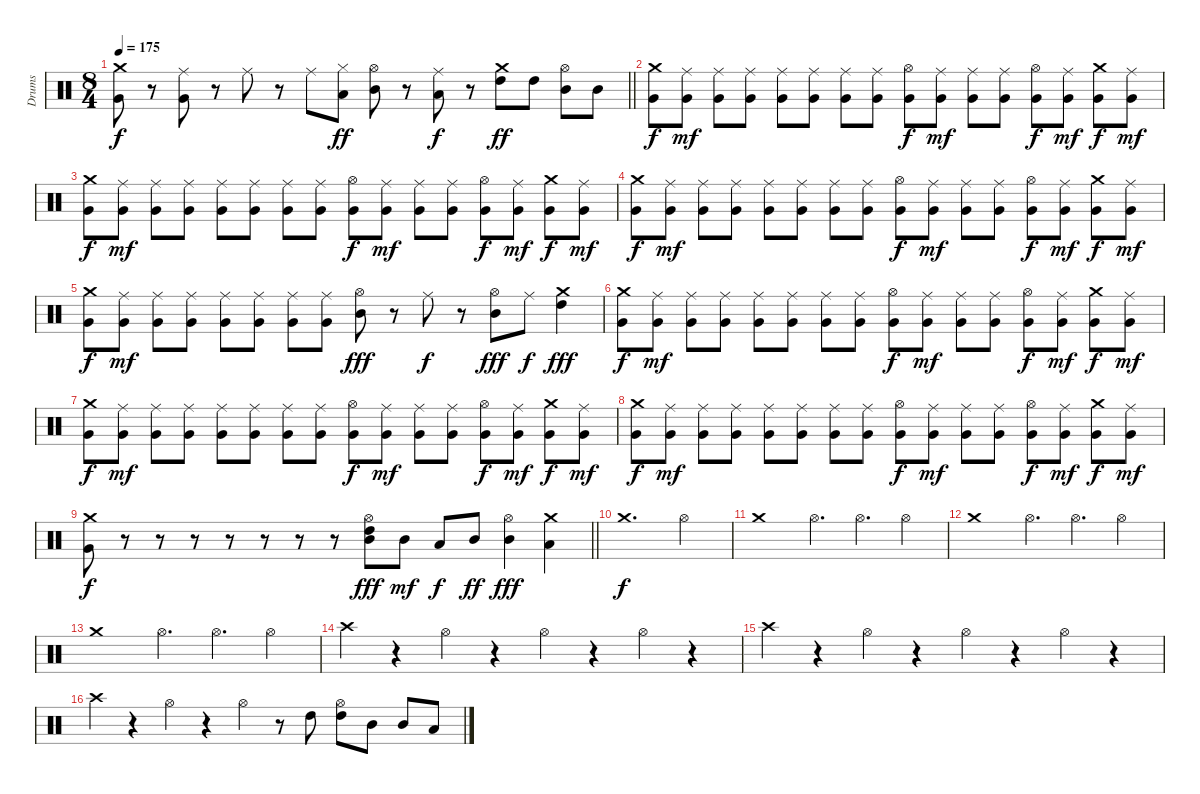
\track ("Drums" "Drums") {instrument percussion}
\staff {score}
\articulation defaults
\ts (8 4)
\tempo 175
\clef neutral
\barLineRight lightlight
\ks c
("Crash medium (hit)" "Very Low Tom (hit)").8{dy f} r.8 ("Ride (middle)" "Very Low Tom (hit)").8 r.8 "Ride (middle)".8 r.8 "Ride (middle)".8 ("Hi-Hat (closed)" "Low Tom (hit)").8{dy ff} ("Hi-Hat (open)" "Mid Tom (hit)").8 r.8 ("Ride (middle)" "Low Tom (hit)").8{dy f} r.8 ("Crash medium (hit)" "High Tom (hit)").8{dy ff} "High Tom (hit)".8 ("Hi-Hat (open)" "Mid Tom (hit)").8 "Mid Tom (hit)".8 |
\section ("" "")
("Crash medium (hit)" "Very Low Tom (hit)").8{dy f} ("Ride (middle)" "Very Low Tom (hit)").8{dy mf} ("Ride (middle)" "Very Low Tom (hit)").8 ("Ride (middle)" "Very Low Tom (hit)").8 ("Ride (middle)" "Very Low Tom (hit)").8 ("Ride (middle)" "Very Low Tom (hit)").8 ("Ride (middle)" "Very Low Tom (hit)").8 ("Ride (middle)" "Very Low Tom (hit)").8 ("Hi-Hat (open)" "Very Low Tom (hit)").8{dy f} ("Ride (middle)" "Very Low Tom (hit)").8{dy mf} ("Ride (middle)" "Very Low Tom (hit)").8 ("Ride (middle)" "Very Low Tom (hit)").8 ("Hi-Hat (open)" "Very Low Tom (hit)").8{dy f} ("Ride (middle)" "Very Low Tom (hit)").8{dy mf} ("Crash medium (hit)" "Very Low Tom (hit)").8{dy f} ("Ride (middle)" "Very Low Tom (hit)").8{dy mf} |
("Crash medium (hit)" "Very Low Tom (hit)").8{dy f} ("Ride (middle)" "Very Low Tom (hit)").8{dy mf} ("Ride (middle)" "Very Low Tom (hit)").8 ("Ride (middle)" "Very Low Tom (hit)").8 ("Ride (middle)" "Very Low Tom (hit)").8 ("Ride (middle)" "Very Low Tom (hit)").8 ("Ride (middle)" "Very Low Tom (hit)").8 ("Ride (middle)" "Very Low Tom (hit)").8 ("Hi-Hat (open)" "Very Low Tom (hit)").8{dy f} ("Ride (middle)" "Very Low Tom (hit)").8{dy mf} ("Ride (middle)" "Very Low Tom (hit)").8 ("Ride (middle)" "Very Low Tom (hit)").8 ("Hi-Hat (open)" "Very Low Tom (hit)").8{dy f} ("Ride (middle)" "Very Low Tom (hit)").8{dy mf} ("Crash medium (hit)" "Very Low Tom (hit)").8{dy f} ("Ride (middle)" "Very Low Tom (hit)").8{dy mf} |
("Crash medium (hit)" "Very Low Tom (hit)").8{dy f} ("Ride (middle)" "Very Low Tom (hit)").8{dy mf} ("Ride (middle)" "Very Low Tom (hit)").8 ("Ride (middle)" "Very Low Tom (hit)").8 ("Ride (middle)" "Very Low Tom (hit)").8 ("Ride (middle)" "Very Low Tom (hit)").8 ("Ride (middle)" "Very Low Tom (hit)").8 ("Ride (middle)" "Very Low Tom (hit)").8 ("Hi-Hat (open)" "Very Low Tom (hit)").8{dy f} ("Ride (middle)" "Very Low Tom (hit)").8{dy mf} ("Ride (middle)" "Very Low Tom (hit)").8 ("Ride (middle)" "Very Low Tom (hit)").8 ("Hi-Hat (open)" "Very Low Tom (hit)").8{dy f} ("Ride (middle)" "Very Low Tom (hit)").8{dy mf} ("Crash medium (hit)" "Very Low Tom (hit)").8{dy f} ("Ride (middle)" "Very Low Tom (hit)").8{dy mf} |
("Crash medium (hit)" "Very Low Tom (hit)").8{dy f} ("Ride (middle)" "Very Low Tom (hit)").8{dy mf} ("Ride (middle)" "Very Low Tom (hit)").8 ("Ride (middle)" "Very Low Tom (hit)").8 ("Ride (middle)" "Very Low Tom (hit)").8 ("Ride (middle)" "Very Low Tom (hit)").8 ("Ride (middle)" "Very Low Tom (hit)").8 ("Ride (middle)" "Very Low Tom (hit)").8 ("Hi-Hat (open)" "Mid Tom (hit)").8{dy fff} r.8 "Ride (middle)".8{dy f} r.8 ("Hi-Hat (open)" "Mid Tom (hit)").8{dy fff} "Ride (middle)".8{dy f} ("Crash medium (hit)" "High Tom (hit)").4{dy fff} |
("Crash medium (hit)" "Very Low Tom (hit)").8{dy f} ("Ride (middle)" "Very Low Tom (hit)").8{dy mf} ("Ride (middle)" "Very Low Tom (hit)").8 ("Ride (middle)" "Very Low Tom (hit)").8 ("Ride (middle)" "Very Low Tom (hit)").8 ("Ride (middle)" "Very Low Tom (hit)").8 ("Ride (middle)" "Very Low Tom (hit)").8 ("Ride (middle)" "Very Low Tom (hit)").8 ("Hi-Hat (open)" "Very Low Tom (hit)").8{dy f} ("Ride (middle)" "Very Low Tom (hit)").8{dy mf} ("Ride (middle)" "Very Low Tom (hit)").8 ("Ride (middle)" "Very Low Tom (hit)").8 ("Hi-Hat (open)" "Very Low Tom (hit)").8{dy f} ("Ride (middle)" "Very Low Tom (hit)").8{dy mf} ("Crash medium (hit)" "Very Low Tom (hit)").8{dy f} ("Ride (middle)" "Very Low Tom (hit)").8{dy mf} |
("Crash medium (hit)" "Very Low Tom (hit)").8{dy f} ("Ride (middle)" "Very Low Tom (hit)").8{dy mf} ("Ride (middle)" "Very Low Tom (hit)").8 ("Ride (middle)" "Very Low Tom (hit)").8 ("Ride (middle)" "Very Low Tom (hit)").8 ("Ride (middle)" "Very Low Tom (hit)").8 ("Ride (middle)" "Very Low Tom (hit)").8 ("Ride (middle)" "Very Low Tom (hit)").8 ("Hi-Hat (open)" "Very Low Tom (hit)").8{dy f} ("Ride (middle)" "Very Low Tom (hit)").8{dy mf} ("Ride (middle)" "Very Low Tom (hit)").8 ("Ride (middle)" "Very Low Tom (hit)").8 ("Hi-Hat (open)" "Very Low Tom (hit)").8{dy f} ("Ride (middle)" "Very Low Tom (hit)").8{dy mf} ("Crash medium (hit)" "Very Low Tom (hit)").8{dy f} ("Ride (middle)" "Very Low Tom (hit)").8{dy mf} |
("Crash medium (hit)" "Very Low Tom (hit)").8{dy f} ("Ride (middle)" "Very Low Tom (hit)").8{dy mf} ("Ride (middle)" "Very Low Tom (hit)").8 ("Ride (middle)" "Very Low Tom (hit)").8 ("Ride (middle)" "Very Low Tom (hit)").8 ("Ride (middle)" "Very Low Tom (hit)").8 ("Ride (middle)" "Very Low Tom (hit)").8 ("Ride (middle)" "Very Low Tom (hit)").8 ("Hi-Hat (open)" "Very Low Tom (hit)").8{dy f} ("Ride (middle)" "Very Low Tom (hit)").8{dy mf} ("Ride (middle)" "Very Low Tom (hit)").8 ("Ride (middle)" "Very Low Tom (hit)").8 ("Hi-Hat (open)" "Very Low Tom (hit)").8{dy f} ("Ride (middle)" "Very Low Tom (hit)").8{dy mf} ("Crash medium (hit)" "Very Low Tom (hit)").8{dy f} ("Ride (middle)" "Very Low Tom (hit)").8{dy mf} |
\barLineRight lightlight
("Crash medium (hit)" "Very Low Tom (hit)").8{dy f} r.8 r.8 r.8 r.8 r.8 r.8 r.8 ("Hi-Hat (open)" "High Tom (hit)" "Mid Tom (hit)").8{dy fff} "Mid Tom (hit)".8{dy mf} "Low Tom (hit)".8{dy f} "Mid Tom (hit)".8{dy ff} ("Hi-Hat (open)" "Mid Tom (hit)").4{dy fff} ("Crash medium (hit)" "Low Tom (hit)").4 |
\section ("" "")
"Crash medium (hit)".1{d dy f} "Hi-Hat (open)".2 |
"Crash medium (hit)".1 "Hi-Hat (open)".4{d} "Hi-Hat (open)".4{d} "Hi-Hat (open)".4 |
"Crash medium (hit)".1 "Hi-Hat (open)".4{d} "Hi-Hat (open)".4{d} "Hi-Hat (open)".4 |
"Crash medium (hit)".1 "Hi-Hat (open)".4{d} "Hi-Hat (open)".4{d} "Hi-Hat (open)".4 |
"Crash high (hit)".4 r.4 "Hi-Hat (open)".4 r.4 "Hi-Hat (open)".4 r.4 "Hi-Hat (open)".4 r.4 |
"Crash high (hit)".4 r.4 "Hi-Hat (open)".4 r.4 "Hi-Hat (open)".4 r.4 "Hi-Hat (open)".4 r.4 |
"Crash high (hit)".4 r.4 "Hi-Hat (open)".4 r.4 "Hi-Hat (open)".4 r.8 "High Tom (hit)".8 ("Hi-Hat (open)" "High Tom (hit)").8 "Mid Tom (hit)".8 "Mid Tom (hit)".8 "Low Tom (hit)".8
